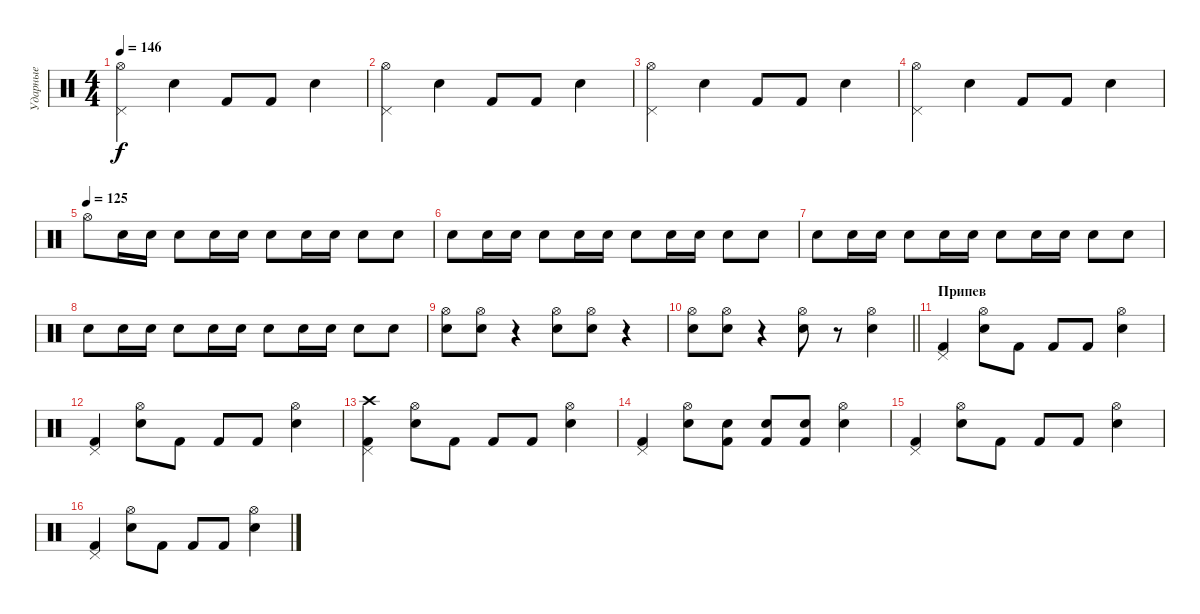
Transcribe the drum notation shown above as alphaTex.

\track ("Ударные" "Ударные") {instrument percussion}
\staff {score}
\articulation defaults
\ts (4 4)
\tempo 146
\clef neutral
\ks c
("Pedal Hi-Hat (hit)" "Hi-Hat (open)").4{dy f} "Snare (hit) 2".4 "Kick (hit) 2".8 "Kick (hit) 2".8 "Snare (hit) 2".4 |
("Pedal Hi-Hat (hit)" "Hi-Hat (open)").4 "Snare (hit) 2".4 "Kick (hit) 2".8 "Kick (hit) 2".8 "Snare (hit) 2".4 |
("Pedal Hi-Hat (hit)" "Hi-Hat (open)").4 "Snare (hit) 2".4 "Kick (hit) 2".8 "Kick (hit) 2".8 "Snare (hit) 2".4 |
("Pedal Hi-Hat (hit)" "Hi-Hat (open)").4 "Snare (hit) 2".4 "Kick (hit) 2".8 "Kick (hit) 2".8 "Snare (hit) 2".4 |
\tempo (125)
"Hi-Hat (open)".8 "Snare (hit) 2".16 "Snare (hit) 2".16 "Snare (hit) 2".8 "Snare (hit) 2".16 "Snare (hit) 2".16 "Snare (hit) 2".8 "Snare (hit) 2".16 "Snare (hit) 2".16 "Snare (hit) 2".8 "Snare (hit) 2".8 |
"Electric Snare (hit)".8 "Electric Snare (hit)".16 "Electric Snare (hit)".16 "Electric Snare (hit)".8 "Electric Snare (hit)".16 "Electric Snare (hit)".16 "Electric Snare (hit)".8 "Electric Snare (hit)".16 "Electric Snare (hit)".16 "Electric Snare (hit)".8 "Electric Snare (hit)".8 |
"Snare (hit) 2".8 "Snare (hit) 2".16 "Snare (hit) 2".16 "Snare (hit) 2".8 "Snare (hit) 2".16 "Snare (hit) 2".16 "Snare (hit) 2".8 "Snare (hit) 2".16 "Snare (hit) 2".16 "Snare (hit) 2".8 "Snare (hit) 2".8 |
"Electric Snare (hit)".8 "Electric Snare (hit)".16 "Electric Snare (hit)".16 "Electric Snare (hit)".8 "Electric Snare (hit)".16 "Electric Snare (hit)".16 "Electric Snare (hit)".8 "Electric Snare (hit)".16 "Electric Snare (hit)".16 "Electric Snare (hit)".8 "Electric Snare (hit)".8 |
("Hi-Hat (open)" "Snare (hit) 2").8 ("Hi-Hat (open)" "Snare (hit) 2").8 r.4 ("Hi-Hat (open)" "Snare (hit) 2").8 ("Hi-Hat (open)" "Snare (hit) 2").8 r.4 |
\barLineRight lightlight
("Hi-Hat (open)" "Snare (hit) 2").8 ("Hi-Hat (open)" "Snare (hit) 2").8 r.4 ("Hi-Hat (open)" "Snare (hit) 2").8 r.8 ("Hi-Hat (open)" "Snare (hit) 2").4 |
\section ("" "Припев")
("Kick (hit) 2" "Pedal Hi-Hat (hit)").4 ("Electric Snare (hit)" "Hi-Hat (open)").8 "Kick (hit) 2".8 "Kick (hit) 2".8 "Kick (hit) 2".8 ("Electric Snare (hit)" "Hi-Hat (open)").4 |
("Kick (hit) 2" "Pedal Hi-Hat (hit)").4 ("Electric Snare (hit)" "Hi-Hat (open)").8 "Kick (hit) 2".8 "Kick (hit) 2".8 "Kick (hit) 2".8 ("Electric Snare (hit)" "Hi-Hat (open)").4 |
("Kick (hit) 2" "Crash high (hit)" "Pedal Hi-Hat (hit)").4 ("Electric Snare (hit)" "Hi-Hat (open)").8 "Kick (hit) 2".8 "Kick (hit) 2".8 "Kick (hit) 2".8 ("Electric Snare (hit)" "Hi-Hat (open)").4 |
("Kick (hit) 2" "Pedal Hi-Hat (hit)").4 ("Electric Snare (hit)" "Hi-Hat (open)").8 ("Electric Snare (hit)" "Kick (hit) 2").8 ("Electric Snare (hit)" "Kick (hit) 2").8 ("Electric Snare (hit)" "Kick (hit) 2").8 ("Electric Snare (hit)" "Hi-Hat (open)").4 |
("Kick (hit) 2" "Pedal Hi-Hat (hit)").4 ("Electric Snare (hit)" "Hi-Hat (open)").8 "Kick (hit) 2".8 "Kick (hit) 2".8 "Kick (hit) 2".8 ("Electric Snare (hit)" "Hi-Hat (open)").4 |
("Kick (hit) 2" "Pedal Hi-Hat (hit)").4 ("Electric Snare (hit)" "Hi-Hat (open)").8 "Kick (hit) 2".8 "Kick (hit) 2".8 "Kick (hit) 2".8 ("Electric Snare (hit)" "Hi-Hat (open)").4
